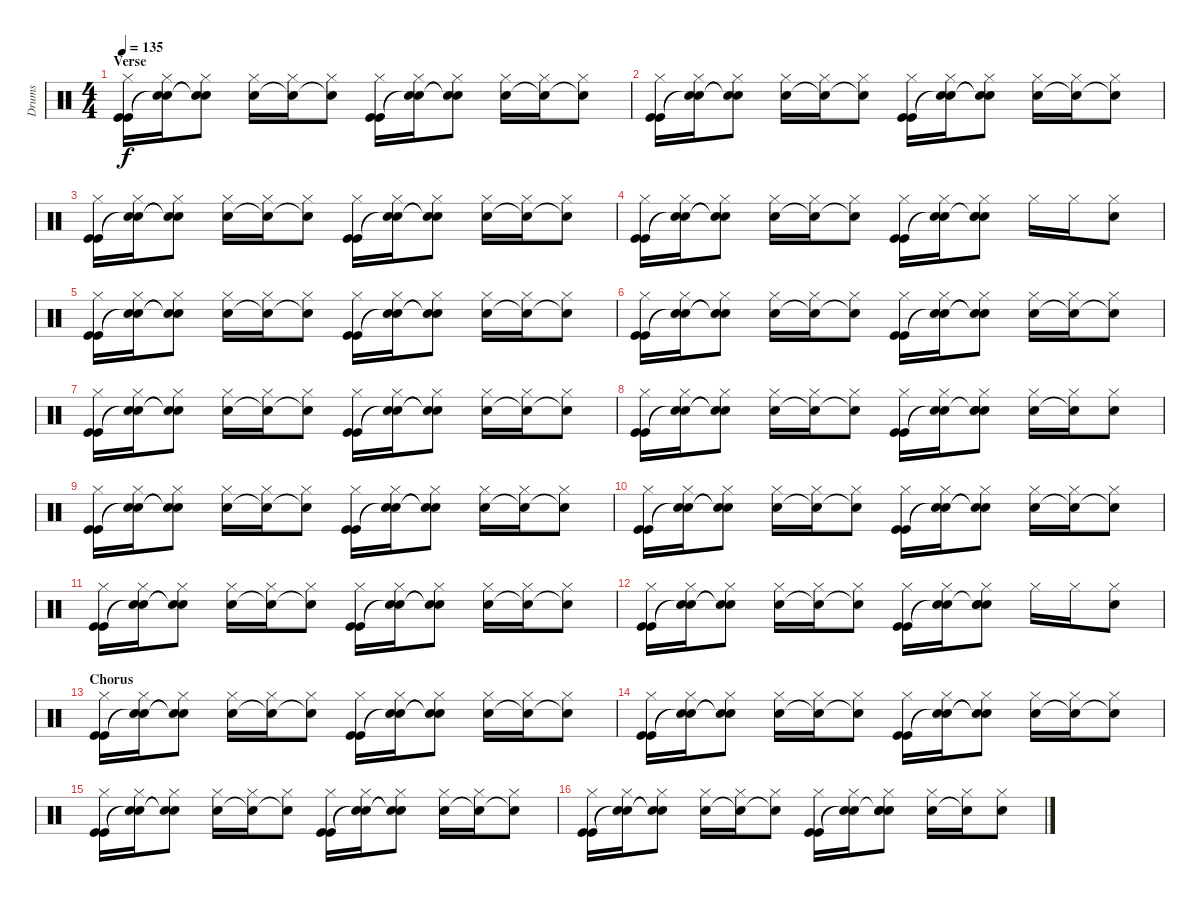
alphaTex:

\track ("Drums" "Drums") {instrument percussion}
\staff {score}
\articulation defaults
\ts (4 4)
\section ("" "Verse")
\tempo 135
\clef neutral
\ks c
("Hi-Hat (closed)" "Kick (hit)" "Kick (hit)").16{dy f} ("Hi-Hat (closed)" "Snare (hit)"{t} "Snare (hit)"{t}).16 ("Hi-Hat (closed)" "Snare (hit)"{t} "Snare (hit)"{t}).8 ("Hi-Hat (closed)" "Snare (hit) 2").16 ("Hi-Hat (closed)" "Snare (hit)"{t}).16 ("Hi-Hat (closed)" "Snare (hit) 2"{t}).8 ("Hi-Hat (closed)" "Kick (hit)" "Kick (hit)").16 ("Hi-Hat (closed)" "Snare (hit)"{t} "Snare (hit)"{t}).16 ("Hi-Hat (closed)" "Snare (hit)"{t} "Snare (hit)"{t}).8 ("Hi-Hat (closed)" "Snare (hit) 2").16 ("Hi-Hat (closed)" "Snare (hit) 2"{t}).16 ("Hi-Hat (closed)" "Snare (hit)"{t}).8 |
("Hi-Hat (closed)" "Kick (hit)" "Kick (hit)").16 ("Hi-Hat (closed)" "Snare (hit)"{t} "Snare (hit)"{t}).16 ("Hi-Hat (closed)" "Snare (hit)"{t} "Snare (hit)"{t}).8 ("Hi-Hat (closed)" "Snare (hit) 2").16 ("Hi-Hat (closed)" "Snare (hit)"{t}).16 ("Hi-Hat (closed)" "Snare (hit) 2"{t}).8 ("Hi-Hat (closed)" "Kick (hit)" "Kick (hit)").16 ("Hi-Hat (closed)" "Snare (hit)"{t} "Snare (hit)"{t}).16 ("Hi-Hat (closed)" "Snare (hit)"{t} "Snare (hit)"{t}).8 ("Hi-Hat (closed)" "Snare (hit) 2").16 ("Hi-Hat (closed)" "Snare (hit) 2"{t}).16 ("Hi-Hat (closed)" "Snare (hit)"{t}).8 |
("Hi-Hat (closed)" "Kick (hit)" "Kick (hit)").16 ("Hi-Hat (closed)" "Snare (hit)"{t} "Snare (hit)"{t}).16 ("Hi-Hat (closed)" "Snare (hit)"{t} "Snare (hit)"{t}).8 ("Hi-Hat (closed)" "Snare (hit) 2").16 ("Hi-Hat (closed)" "Snare (hit)"{t}).16 ("Hi-Hat (closed)" "Snare (hit) 2"{t}).8 ("Hi-Hat (closed)" "Kick (hit)" "Kick (hit)").16 ("Hi-Hat (closed)" "Snare (hit)"{t} "Snare (hit)"{t}).16 ("Hi-Hat (closed)" "Snare (hit)"{t} "Snare (hit)"{t}).8 ("Hi-Hat (closed)" "Snare (hit) 2").16 ("Hi-Hat (closed)" "Snare (hit) 2"{t}).16 ("Hi-Hat (closed)" "Snare (hit)"{t}).8 |
("Hi-Hat (closed)" "Kick (hit)" "Kick (hit)").16 ("Hi-Hat (closed)" "Snare (hit)"{t} "Snare (hit)"{t}).16 ("Hi-Hat (closed)" "Snare (hit)"{t} "Snare (hit)"{t}).8 ("Hi-Hat (closed)" "Snare (hit) 2").16 ("Hi-Hat (closed)" "Snare (hit)"{t}).16 ("Hi-Hat (closed)" "Snare (hit) 2"{t}).8 ("Hi-Hat (closed)" "Kick (hit)" "Kick (hit)").16 ("Hi-Hat (closed)" "Snare (hit)"{t} "Snare (hit)"{t}).16 ("Hi-Hat (closed)" "Snare (hit) 2" "Snare (hit)"{t} "Snare (hit)").8 "Hi-Hat (closed)".16 "Hi-Hat (closed)".16 ("Hi-Hat (closed)" "Snare (hit) 2").8 |
("Hi-Hat (closed)" "Kick (hit)" "Kick (hit)").16 ("Hi-Hat (closed)" "Snare (hit)"{t} "Snare (hit)"{t}).16 ("Hi-Hat (closed)" "Snare (hit)"{t} "Snare (hit)"{t}).8 ("Hi-Hat (closed)" "Snare (hit) 2").16 ("Hi-Hat (closed)" "Snare (hit)"{t}).16 ("Hi-Hat (closed)" "Snare (hit) 2"{t}).8 ("Hi-Hat (closed)" "Kick (hit)" "Kick (hit)").16 ("Hi-Hat (closed)" "Snare (hit)"{t} "Snare (hit)"{t}).16 ("Hi-Hat (closed)" "Snare (hit)"{t} "Snare (hit)"{t}).8 ("Hi-Hat (closed)" "Snare (hit) 2").16 ("Hi-Hat (closed)" "Snare (hit) 2"{t}).16 ("Hi-Hat (closed)" "Snare (hit)"{t}).8 |
("Hi-Hat (closed)" "Kick (hit)" "Kick (hit)").16 ("Hi-Hat (closed)" "Snare (hit)"{t} "Snare (hit)"{t}).16 ("Hi-Hat (closed)" "Snare (hit)"{t} "Snare (hit)"{t}).8 ("Hi-Hat (closed)" "Snare (hit) 2").16 ("Hi-Hat (closed)" "Snare (hit)"{t}).16 ("Hi-Hat (closed)" "Snare (hit) 2"{t}).8 ("Hi-Hat (closed)" "Kick (hit)" "Kick (hit)").16 ("Hi-Hat (closed)" "Snare (hit)"{t} "Snare (hit)"{t}).16 ("Hi-Hat (closed)" "Snare (hit)"{t} "Snare (hit)"{t}).8 ("Hi-Hat (closed)" "Snare (hit) 2").16 ("Hi-Hat (closed)" "Snare (hit) 2"{t}).16 ("Hi-Hat (closed)" "Snare (hit)"{t}).8 |
("Hi-Hat (closed)" "Kick (hit)" "Kick (hit)").16 ("Hi-Hat (closed)" "Snare (hit)"{t} "Snare (hit)"{t}).16 ("Hi-Hat (closed)" "Snare (hit)"{t} "Snare (hit)"{t}).8 ("Hi-Hat (closed)" "Snare (hit) 2").16 ("Hi-Hat (closed)" "Snare (hit)"{t}).16 ("Hi-Hat (closed)" "Snare (hit) 2"{t}).8 ("Hi-Hat (closed)" "Kick (hit)" "Kick (hit)").16 ("Hi-Hat (closed)" "Snare (hit)"{t} "Snare (hit)"{t}).16 ("Hi-Hat (closed)" "Snare (hit)"{t} "Snare (hit)"{t}).8 ("Hi-Hat (closed)" "Snare (hit) 2").16 ("Hi-Hat (closed)" "Snare (hit) 2"{t}).16 ("Hi-Hat (closed)" "Snare (hit)"{t}).8 |
("Hi-Hat (closed)" "Kick (hit)" "Kick (hit)").16 ("Hi-Hat (closed)" "Snare (hit)"{t} "Snare (hit)"{t}).16 ("Hi-Hat (closed)" "Snare (hit)"{t} "Snare (hit)"{t}).8 ("Hi-Hat (closed)" "Snare (hit) 2").16 ("Hi-Hat (closed)" "Snare (hit)"{t}).16 ("Hi-Hat (closed)" "Snare (hit) 2"{t}).8 ("Hi-Hat (closed)" "Kick (hit)" "Kick (hit)").16 ("Hi-Hat (closed)" "Snare (hit)"{t} "Snare (hit)"{t}).16 ("Hi-Hat (closed)" "Snare (hit) 2" "Snare (hit)"{t} "Snare (hit)").8 ("Hi-Hat (closed)" "Snare (hit) 2").16 ("Hi-Hat (closed)" "Snare (hit) 2"{t}).16 ("Hi-Hat (closed)" "Snare (hit) 2").8 |
("Hi-Hat (closed)" "Kick (hit)" "Kick (hit)").16 ("Hi-Hat (closed)" "Snare (hit)"{t} "Snare (hit)"{t}).16 ("Hi-Hat (closed)" "Snare (hit)"{t} "Snare (hit)"{t}).8 ("Hi-Hat (closed)" "Snare (hit) 2").16 ("Hi-Hat (closed)" "Snare (hit)"{t}).16 ("Hi-Hat (closed)" "Snare (hit) 2"{t}).8 ("Hi-Hat (closed)" "Kick (hit)" "Kick (hit)").16 ("Hi-Hat (closed)" "Snare (hit)"{t} "Snare (hit)"{t}).16 ("Hi-Hat (closed)" "Snare (hit)"{t} "Snare (hit)"{t}).8 ("Hi-Hat (closed)" "Snare (hit) 2").16 ("Hi-Hat (closed)" "Snare (hit) 2"{t}).16 ("Hi-Hat (closed)" "Snare (hit)"{t}).8 |
("Hi-Hat (closed)" "Kick (hit)" "Kick (hit)").16 ("Hi-Hat (closed)" "Snare (hit)"{t} "Snare (hit)"{t}).16 ("Hi-Hat (closed)" "Snare (hit)"{t} "Snare (hit)"{t}).8 ("Hi-Hat (closed)" "Snare (hit) 2").16 ("Hi-Hat (closed)" "Snare (hit)"{t}).16 ("Hi-Hat (closed)" "Snare (hit) 2"{t}).8 ("Hi-Hat (closed)" "Kick (hit)" "Kick (hit)").16 ("Hi-Hat (closed)" "Snare (hit)"{t} "Snare (hit)"{t}).16 ("Hi-Hat (closed)" "Snare (hit)"{t} "Snare (hit)"{t}).8 ("Hi-Hat (closed)" "Snare (hit) 2").16 ("Hi-Hat (closed)" "Snare (hit) 2"{t}).16 ("Hi-Hat (closed)" "Snare (hit)"{t}).8 |
("Hi-Hat (closed)" "Kick (hit)" "Kick (hit)").16 ("Hi-Hat (closed)" "Snare (hit)"{t} "Snare (hit)"{t}).16 ("Hi-Hat (closed)" "Snare (hit)"{t} "Snare (hit)"{t}).8 ("Hi-Hat (closed)" "Snare (hit) 2").16 ("Hi-Hat (closed)" "Snare (hit)"{t}).16 ("Hi-Hat (closed)" "Snare (hit) 2"{t}).8 ("Hi-Hat (closed)" "Kick (hit)" "Kick (hit)").16 ("Hi-Hat (closed)" "Snare (hit)"{t} "Snare (hit)"{t}).16 ("Hi-Hat (closed)" "Snare (hit)"{t} "Snare (hit)"{t}).8 ("Hi-Hat (closed)" "Snare (hit) 2").16 ("Hi-Hat (closed)" "Snare (hit) 2"{t}).16 ("Hi-Hat (closed)" "Snare (hit)"{t}).8 |
("Hi-Hat (closed)" "Kick (hit)" "Kick (hit)").16 ("Hi-Hat (closed)" "Snare (hit)"{t} "Snare (hit)"{t}).16 ("Hi-Hat (closed)" "Snare (hit)"{t} "Snare (hit)"{t}).8 ("Hi-Hat (closed)" "Snare (hit) 2").16 ("Hi-Hat (closed)" "Snare (hit)"{t}).16 ("Hi-Hat (closed)" "Snare (hit) 2"{t}).8 ("Hi-Hat (closed)" "Kick (hit)" "Kick (hit)").16 ("Hi-Hat (closed)" "Snare (hit)"{t} "Snare (hit)"{t}).16 ("Hi-Hat (closed)" "Snare (hit) 2" "Snare (hit)"{t} "Snare (hit)").8 "Hi-Hat (closed)".16 "Hi-Hat (closed)".16 ("Hi-Hat (closed)" "Snare (hit) 2").8 |
\section ("" "Chorus")
("Hi-Hat (closed)" "Kick (hit)" "Kick (hit)").16 ("Hi-Hat (closed)" "Snare (hit)"{t} "Snare (hit)"{t}).16 ("Hi-Hat (closed)" "Snare (hit)"{t} "Snare (hit)"{t}).8 ("Hi-Hat (closed)" "Snare (hit) 2").16 ("Hi-Hat (closed)" "Snare (hit)"{t}).16 ("Hi-Hat (closed)" "Snare (hit) 2"{t}).8 ("Hi-Hat (closed)" "Kick (hit)" "Kick (hit)").16 ("Hi-Hat (closed)" "Snare (hit)"{t} "Snare (hit)"{t}).16 ("Hi-Hat (closed)" "Snare (hit)"{t} "Snare (hit)"{t}).8 ("Hi-Hat (closed)" "Snare (hit) 2").16 ("Hi-Hat (closed)" "Snare (hit) 2"{t}).16 ("Hi-Hat (closed)" "Snare (hit)"{t}).8 |
("Hi-Hat (closed)" "Kick (hit)" "Kick (hit)").16 ("Hi-Hat (closed)" "Snare (hit)"{t} "Snare (hit)"{t}).16 ("Hi-Hat (closed)" "Snare (hit)"{t} "Snare (hit)"{t}).8 ("Hi-Hat (closed)" "Snare (hit) 2").16 ("Hi-Hat (closed)" "Snare (hit)"{t}).16 ("Hi-Hat (closed)" "Snare (hit) 2"{t}).8 ("Hi-Hat (closed)" "Kick (hit)" "Kick (hit)").16 ("Hi-Hat (closed)" "Snare (hit)"{t} "Snare (hit)"{t}).16 ("Hi-Hat (closed)" "Snare (hit)"{t} "Snare (hit)"{t}).8 ("Hi-Hat (closed)" "Snare (hit) 2").16 ("Hi-Hat (closed)" "Snare (hit) 2"{t}).16 ("Hi-Hat (closed)" "Snare (hit)"{t}).8 |
("Hi-Hat (closed)" "Kick (hit)" "Kick (hit)").16 ("Hi-Hat (closed)" "Snare (hit)"{t} "Snare (hit)"{t}).16 ("Hi-Hat (closed)" "Snare (hit)"{t} "Snare (hit)"{t}).8 ("Hi-Hat (closed)" "Snare (hit) 2").16 ("Hi-Hat (closed)" "Snare (hit)"{t}).16 ("Hi-Hat (closed)" "Snare (hit) 2"{t}).8 ("Hi-Hat (closed)" "Kick (hit)" "Kick (hit)").16 ("Hi-Hat (closed)" "Snare (hit)"{t} "Snare (hit)"{t}).16 ("Hi-Hat (closed)" "Snare (hit)"{t} "Snare (hit)"{t}).8 ("Hi-Hat (closed)" "Snare (hit) 2").16 ("Hi-Hat (closed)" "Snare (hit) 2"{t}).16 ("Hi-Hat (closed)" "Snare (hit)"{t}).8 |
("Hi-Hat (closed)" "Kick (hit)" "Kick (hit)").16 ("Hi-Hat (closed)" "Snare (hit)"{t} "Snare (hit)"{t}).16 ("Hi-Hat (closed)" "Snare (hit)"{t} "Snare (hit)"{t}).8 ("Hi-Hat (closed)" "Snare (hit) 2").16 ("Hi-Hat (closed)" "Snare (hit)"{t}).16 ("Hi-Hat (closed)" "Snare (hit) 2"{t}).8 ("Hi-Hat (closed)" "Kick (hit)" "Kick (hit)").16 ("Hi-Hat (closed)" "Snare (hit)"{t} "Snare (hit)"{t}).16 ("Hi-Hat (closed)" "Snare (hit) 2" "Snare (hit)"{t} "Snare (hit)").8 ("Hi-Hat (closed)" "Snare (hit) 2").16 ("Hi-Hat (closed)" "Snare (hit) 2"{t}).16 ("Hi-Hat (closed)" "Snare (hit) 2").8
